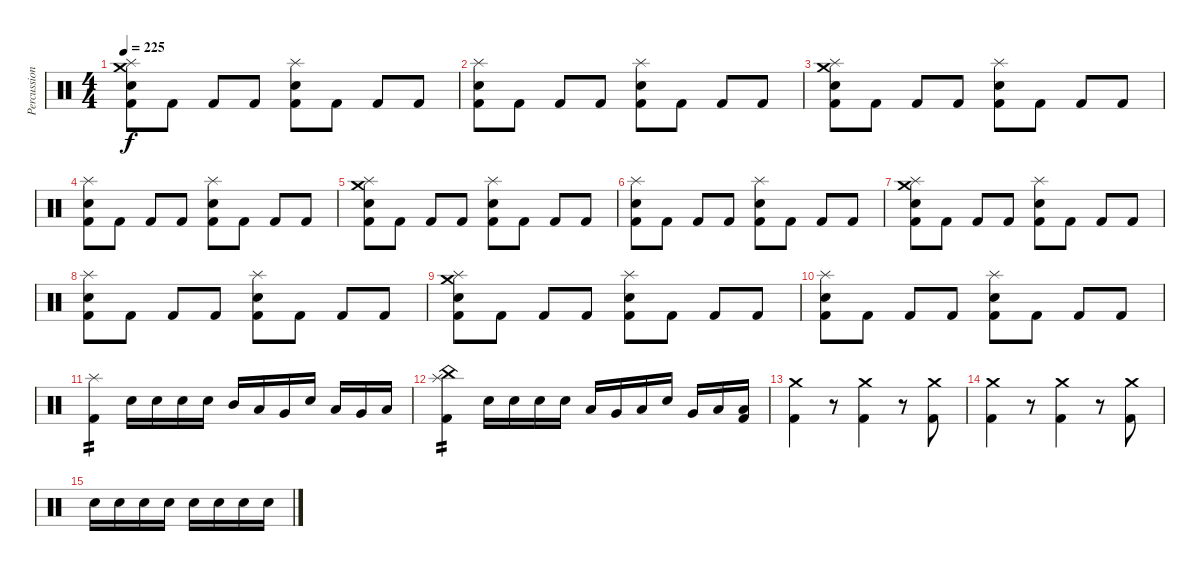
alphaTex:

\track ("Percussion" "Percussion") {instrument percussion}
\staff {score}
\articulation defaults
\ts (4 4)
\tempo 225
\clef neutral
\ks c
("Crash medium (hit)" "Splash (hit)" "Snare (hit) 2" "Kick (hit) 2").8{dy f} "Kick (hit) 2".8 "Kick (hit) 2".8 "Kick (hit) 2".8 ("Splash (hit)" "Snare (hit) 2" "Kick (hit) 2").8 "Kick (hit) 2".8 "Kick (hit) 2".8 "Kick (hit) 2".8 |
("Splash (hit)" "Snare (hit) 2" "Kick (hit) 2").8 "Kick (hit) 2".8 "Kick (hit) 2".8 "Kick (hit) 2".8 ("Splash (hit)" "Snare (hit) 2" "Kick (hit) 2").8 "Kick (hit) 2".8 "Kick (hit) 2".8 "Kick (hit) 2".8 |
("Crash medium (hit)" "Splash (hit)" "Snare (hit) 2" "Kick (hit) 2").8 "Kick (hit) 2".8 "Kick (hit) 2".8 "Kick (hit) 2".8 ("Splash (hit)" "Snare (hit) 2" "Kick (hit) 2").8 "Kick (hit) 2".8 "Kick (hit) 2".8 "Kick (hit) 2".8 |
("Splash (hit)" "Snare (hit) 2" "Kick (hit) 2").8 "Kick (hit) 2".8 "Kick (hit) 2".8 "Kick (hit) 2".8 ("Splash (hit)" "Snare (hit) 2" "Kick (hit) 2").8 "Kick (hit) 2".8 "Kick (hit) 2".8 "Kick (hit) 2".8 |
("Crash medium (hit)" "Splash (hit)" "Snare (hit) 2" "Kick (hit) 2").8 "Kick (hit) 2".8 "Kick (hit) 2".8 "Kick (hit) 2".8 ("Splash (hit)" "Snare (hit) 2" "Kick (hit) 2").8 "Kick (hit) 2".8 "Kick (hit) 2".8 "Kick (hit) 2".8 |
("Splash (hit)" "Snare (hit) 2" "Kick (hit) 2").8 "Kick (hit) 2".8 "Kick (hit) 2".8 "Kick (hit) 2".8 ("Splash (hit)" "Snare (hit) 2" "Kick (hit) 2").8 "Kick (hit) 2".8 "Kick (hit) 2".8 "Kick (hit) 2".8 |
("Crash medium (hit)" "Splash (hit)" "Snare (hit) 2" "Kick (hit) 2").8 "Kick (hit) 2".8 "Kick (hit) 2".8 "Kick (hit) 2".8 ("Splash (hit)" "Snare (hit) 2" "Kick (hit) 2").8 "Kick (hit) 2".8 "Kick (hit) 2".8 "Kick (hit) 2".8 |
("Splash (hit)" "Snare (hit) 2" "Kick (hit) 2").8 "Kick (hit) 2".8 "Kick (hit) 2".8 "Kick (hit) 2".8 ("Splash (hit)" "Snare (hit) 2" "Kick (hit) 2").8 "Kick (hit) 2".8 "Kick (hit) 2".8 "Kick (hit) 2".8 |
("Crash medium (hit)" "Splash (hit)" "Snare (hit) 2" "Kick (hit) 2").8 "Kick (hit) 2".8 "Kick (hit) 2".8 "Kick (hit) 2".8 ("Splash (hit)" "Snare (hit) 2" "Kick (hit) 2").8 "Kick (hit) 2".8 "Kick (hit) 2".8 "Kick (hit) 2".8 |
("Splash (hit)" "Snare (hit) 2" "Kick (hit) 2").8 "Kick (hit) 2".8 "Kick (hit) 2".8 "Kick (hit) 2".8 ("Splash (hit)" "Snare (hit) 2" "Kick (hit) 2").8 "Kick (hit) 2".8 "Kick (hit) 2".8 "Kick (hit) 2".8 |
("Splash (hit)" "Kick (hit) 2").4{tp 2} "Snare (hit) 2".16 "Snare (hit) 2".16 "Snare (hit) 2".16 "Snare (hit)".16 "Mid Tom (hit)".16 "Low Tom (hit)".16 "Very Low Tom (hit)".16 "Snare (hit)".16 "Low Tom (hit)".16 "Very Low Tom (hit)".16 "Low Floor Tom (hit)".16 |
("Splash (hit)" "China (hit)" "Kick (hit) 2").4{tp 2} "Snare (hit) 2".16 "Snare (hit) 2".16 "Snare (hit) 2".16 "Snare (hit)".16 "Low Tom (hit)".16 "Very Low Tom (hit)".16 "Low Floor Tom (hit)".16 "Snare (hit)".16 "Very Low Tom (hit)".16 "Low Floor Tom (hit)".16 ("Low Floor Tom (hit)" "Kick (hit) 2").16 |
("Kick (hit) 2" "Crash medium (hit)").4 r.8 ("Kick (hit) 2" "Crash medium (hit)").4 r.8 ("Kick (hit) 2" "Crash medium (hit)").8 |
("Kick (hit) 2" "Crash medium (hit)").4 r.8 ("Kick (hit) 2" "Crash medium (hit)").4 r.8 ("Kick (hit) 2" "Crash medium (hit)").8 |
"Snare (hit) 2".16 "Snare (hit) 2".16 "Snare (hit) 2".16 "Snare (hit) 2".16 "Snare (hit) 2".16 "Snare (hit) 2".16 "Snare (hit) 2".16 "Snare (hit) 2".16
